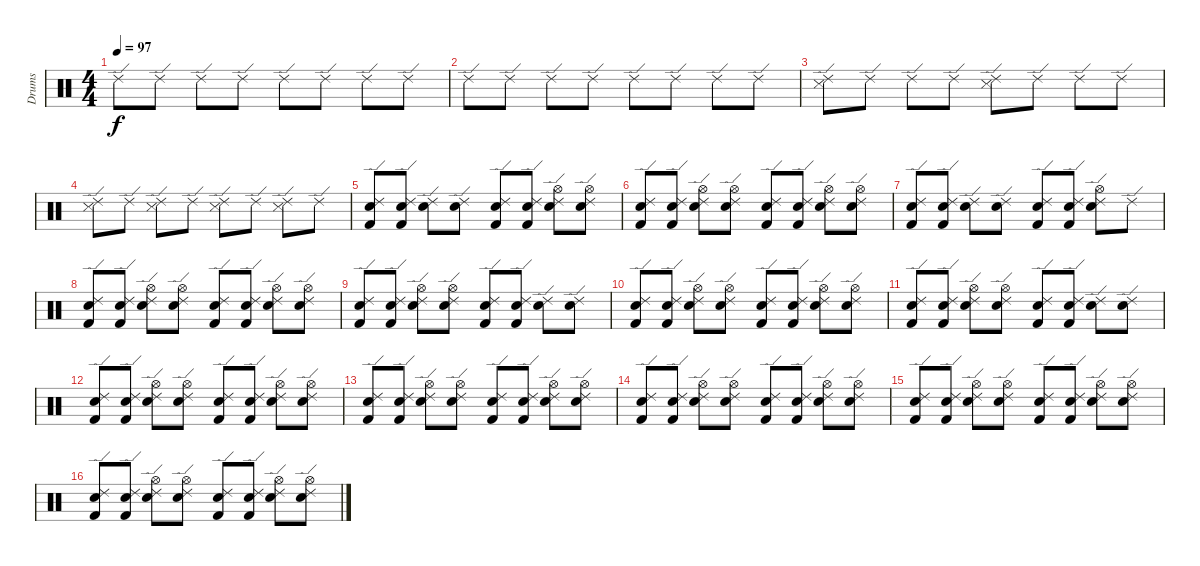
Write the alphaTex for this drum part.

\track ("Drums" "Drums") {instrument percussion}
\staff {score}
\articulation defaults
\ts (4 4)
\tempo 97
\clef neutral
\ks c "Ride (edge) 2".8{dy f} "Ride (edge) 2".8 "Ride (edge) 2".8 "Ride (edge) 2".8 "Ride (edge) 2".8 "Ride (edge) 2".8 "Ride (edge) 2".8 "Ride (edge) 2".8
|
"Ride (edge) 2".8 "Ride (edge) 2".8 "Ride (edge) 2".8 "Ride (edge) 2".8 "Ride (edge) 2".8 "Ride (edge) 2".8 "Ride (edge) 2".8 "Ride (edge) 2".8 |
("Ride (edge) 2" "Snare (side stick) 3").8 "Ride (edge) 2".8 "Ride (edge) 2".8 "Ride (edge) 2".8 ("Ride (edge) 2" "Snare (side stick) 3").8 "Ride (edge) 2".8 "Ride (edge) 2".8 "Ride (edge) 2".8 |
("Ride (edge) 2" "Snare (side stick) 3").8 "Ride (edge) 2".8 ("Ride (edge) 2" "Snare (side stick) 3").8 "Ride (edge) 2".8 ("Ride (edge) 2" "Snare (side stick) 3").8 "Ride (edge) 2".8 ("Ride (edge) 2" "Snare (side stick) 3").8 "Ride (edge) 2".8 |
("Ride (edge) 2" "Snare (hit) 2" "Kick (hit) 2").8 ("Ride (edge) 2" "Snare (hit) 2" "Kick (hit) 2").8 ("Ride (edge) 2" "Electric Snare (hit)").8 ("Ride (edge) 2" "Electric Snare (hit)").8 ("Ride (edge) 2" "Snare (hit) 2" "Kick (hit) 2").8 ("Ride (edge) 2" "Snare (hit) 2" "Kick (hit) 2").8 ("Ride (edge) 2" "Hi-Hat (open)" "Electric Snare (hit)").8 ("Ride (edge) 2" "Hi-Hat (open)" "Electric Snare (hit)").8 |
("Ride (edge) 2" "Snare (hit) 2" "Kick (hit) 2").8 ("Ride (edge) 2" "Snare (hit) 2" "Kick (hit) 2").8 ("Ride (edge) 2" "Hi-Hat (open)" "Electric Snare (hit)").8 ("Ride (edge) 2" "Hi-Hat (open)" "Electric Snare (hit)").8 ("Ride (edge) 2" "Snare (hit) 2" "Kick (hit) 2").8 ("Ride (edge) 2" "Snare (hit) 2" "Kick (hit) 2").8 ("Ride (edge) 2" "Hi-Hat (open)" "Electric Snare (hit)").8 ("Ride (edge) 2" "Hi-Hat (open)" "Electric Snare (hit)").8 |
("Ride (edge) 2" "Snare (hit) 2" "Kick (hit) 2").8 ("Ride (edge) 2" "Snare (hit) 2" "Kick (hit) 2").8 ("Ride (edge) 2" "Electric Snare (hit)").8 ("Ride (edge) 2" "Electric Snare (hit)").8 ("Ride (edge) 2" "Snare (hit) 2" "Kick (hit) 2").8 ("Ride (edge) 2" "Snare (hit) 2" "Kick (hit) 2").8 ("Ride (edge) 2" "Hi-Hat (open)" "Electric Snare (hit)").8 "Ride (edge) 2".8 |
("Ride (edge) 2" "Snare (hit) 2" "Kick (hit) 2").8 ("Ride (edge) 2" "Snare (hit) 2" "Kick (hit) 2").8 ("Ride (edge) 2" "Hi-Hat (open)" "Electric Snare (hit)").8 ("Ride (edge) 2" "Hi-Hat (open)" "Electric Snare (hit)").8 ("Ride (edge) 2" "Snare (hit) 2" "Kick (hit) 2").8 ("Ride (edge) 2" "Snare (hit) 2" "Kick (hit) 2").8 ("Ride (edge) 2" "Hi-Hat (open)" "Electric Snare (hit)").8 ("Ride (edge) 2" "Hi-Hat (open)" "Electric Snare (hit)").8 |
("Ride (edge) 2" "Snare (hit) 2" "Kick (hit) 2").8 ("Ride (edge) 2" "Snare (hit) 2" "Kick (hit) 2").8 ("Ride (edge) 2" "Hi-Hat (open)" "Electric Snare (hit)").8 ("Ride (edge) 2" "Hi-Hat (open)" "Electric Snare (hit)").8 ("Ride (edge) 2" "Snare (hit) 2" "Kick (hit) 2").8 ("Ride (edge) 2" "Snare (hit) 2" "Kick (hit) 2").8 ("Ride (edge) 2" "Electric Snare (hit)").8 ("Ride (edge) 2" "Electric Snare (hit)").8 |
("Ride (edge) 2" "Snare (hit) 2" "Kick (hit) 2").8 ("Ride (edge) 2" "Snare (hit) 2" "Kick (hit) 2").8 ("Ride (edge) 2" "Hi-Hat (open)" "Electric Snare (hit)").8 ("Ride (edge) 2" "Hi-Hat (open)" "Electric Snare (hit)").8 ("Ride (edge) 2" "Snare (hit) 2" "Kick (hit) 2").8 ("Ride (edge) 2" "Snare (hit) 2" "Kick (hit) 2").8 ("Ride (edge) 2" "Hi-Hat (open)" "Electric Snare (hit)").8 ("Ride (edge) 2" "Hi-Hat (open)" "Electric Snare (hit)").8 |
("Ride (edge) 2" "Snare (hit) 2" "Kick (hit) 2").8 ("Ride (edge) 2" "Snare (hit) 2" "Kick (hit) 2").8 ("Ride (edge) 2" "Hi-Hat (open)" "Electric Snare (hit)").8 ("Ride (edge) 2" "Hi-Hat (open)" "Electric Snare (hit)").8 ("Ride (edge) 2" "Snare (hit) 2" "Kick (hit) 2").8 ("Ride (edge) 2" "Snare (hit) 2" "Kick (hit) 2").8 ("Ride (edge) 2" "Electric Snare (hit)").8 ("Ride (edge) 2" "Electric Snare (hit)").8 |
("Ride (edge) 2" "Snare (hit) 2" "Kick (hit) 2").8 ("Ride (edge) 2" "Snare (hit) 2" "Kick (hit) 2").8 ("Ride (edge) 2" "Hi-Hat (open)" "Electric Snare (hit)").8 ("Ride (edge) 2" "Hi-Hat (open)" "Electric Snare (hit)").8 ("Ride (edge) 2" "Snare (hit) 2" "Kick (hit) 2").8 ("Ride (edge) 2" "Snare (hit) 2" "Kick (hit) 2").8 ("Ride (edge) 2" "Hi-Hat (open)" "Electric Snare (hit)").8 ("Ride (edge) 2" "Hi-Hat (open)" "Electric Snare (hit)").8 |
("Ride (edge) 2" "Snare (hit) 2" "Kick (hit) 2").8 ("Ride (edge) 2" "Snare (hit) 2" "Kick (hit) 2").8 ("Ride (edge) 2" "Hi-Hat (open)" "Electric Snare (hit)").8 ("Ride (edge) 2" "Hi-Hat (open)" "Electric Snare (hit)").8 ("Ride (edge) 2" "Snare (hit) 2" "Kick (hit) 2").8 ("Ride (edge) 2" "Snare (hit) 2" "Kick (hit) 2").8 ("Ride (edge) 2" "Hi-Hat (open)" "Electric Snare (hit)").8 ("Ride (edge) 2" "Hi-Hat (open)" "Electric Snare (hit)").8 |
("Ride (edge) 2" "Snare (hit) 2" "Kick (hit) 2").8 ("Ride (edge) 2" "Snare (hit) 2" "Kick (hit) 2").8 ("Ride (edge) 2" "Hi-Hat (open)" "Electric Snare (hit)").8 ("Ride (edge) 2" "Hi-Hat (open)" "Electric Snare (hit)").8 ("Ride (edge) 2" "Snare (hit) 2" "Kick (hit) 2").8 ("Ride (edge) 2" "Snare (hit) 2" "Kick (hit) 2").8 ("Ride (edge) 2" "Hi-Hat (open)" "Electric Snare (hit)").8 ("Ride (edge) 2" "Hi-Hat (open)" "Electric Snare (hit)").8 |
("Ride (edge) 2" "Snare (hit) 2" "Kick (hit) 2").8 ("Ride (edge) 2" "Snare (hit) 2" "Kick (hit) 2").8 ("Ride (edge) 2" "Hi-Hat (open)" "Electric Snare (hit)").8 ("Ride (edge) 2" "Hi-Hat (open)" "Electric Snare (hit)").8 ("Ride (edge) 2" "Snare (hit) 2" "Kick (hit) 2").8 ("Ride (edge) 2" "Snare (hit) 2" "Kick (hit) 2").8 ("Ride (edge) 2" "Hi-Hat (open)" "Electric Snare (hit)").8 ("Ride (edge) 2" "Hi-Hat (open)" "Electric Snare (hit)").8 |
("Ride (edge) 2" "Snare (hit) 2" "Kick (hit) 2").8 ("Ride (edge) 2" "Snare (hit) 2" "Kick (hit) 2").8 ("Ride (edge) 2" "Hi-Hat (open)" "Electric Snare (hit)").8 ("Ride (edge) 2" "Hi-Hat (open)" "Electric Snare (hit)").8 ("Ride (edge) 2" "Snare (hit) 2" "Kick (hit) 2").8 ("Ride (edge) 2" "Snare (hit) 2" "Kick (hit) 2").8 ("Ride (edge) 2" "Hi-Hat (open)" "Electric Snare (hit)").8 ("Ride (edge) 2" "Hi-Hat (open)" "Electric Snare (hit)").8
